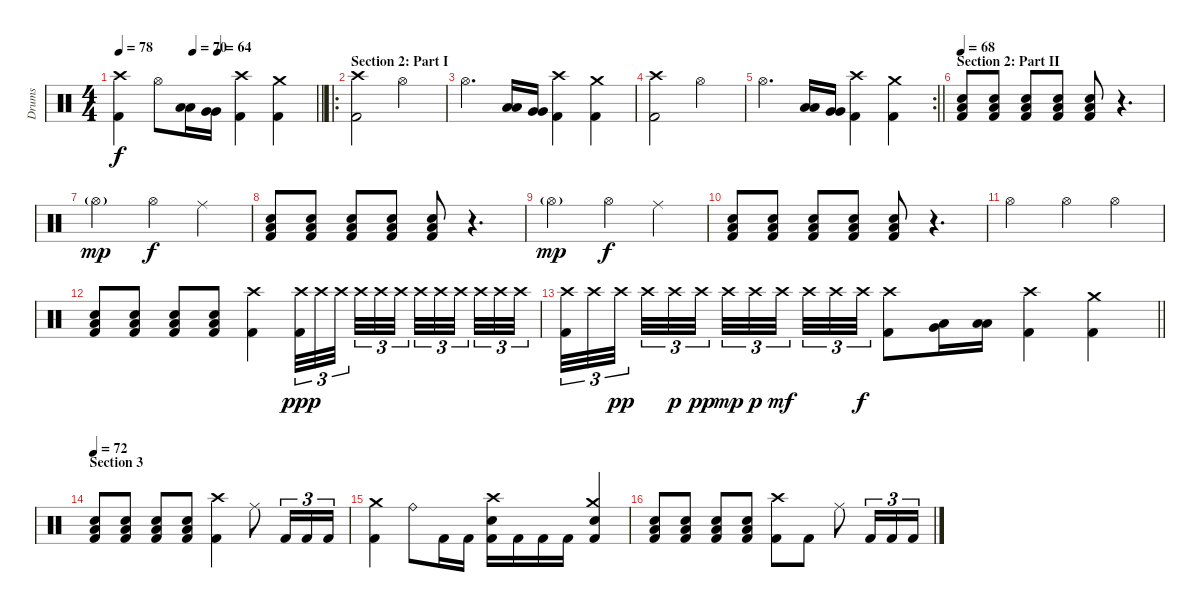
\track ("Drums" "Drums") {instrument percussion}
\staff {score}
\articulation defaults
\ts (4 4)
\tempo 78
\tempo (70 0.375)
\tempo (64 0.5)
\clef neutral
\barLineRight lightlight
\ks c
("Crash high (hit)" "Kick (hit) 2").4{dy f} "Hi-Hat (open)".8 ("Low Tom (hit)" "Low Tom (hit)").16 ("Very Low Tom (hit)" "Very Low Tom (hit)").16 ("Crash high (hit)" "Kick (hit) 2").4 ("Crash medium (hit)" "Kick (hit) 2").4 |
\ro
\section ("" "Section 2: Part I")
("Crash high (hit)" "Kick (hit) 2").2 "Hi-Hat (open)".2 |
"Hi-Hat (open)".4{d} ("Low Tom (hit)" "Low Tom (hit)").16 ("Very Low Tom (hit)" "Very Low Tom (hit)").16 ("Crash high (hit)" "Kick (hit) 2").4 ("Crash medium (hit)" "Kick (hit) 2").4 |
("Crash high (hit)" "Kick (hit) 2").2 "Hi-Hat (open)".2 |
\rc 2
\barLineRight lightlight "Hi-Hat (open)".4{d}
("Low Tom (hit)" "Low Tom (hit)").16 ("Very Low Tom (hit)" "Very Low Tom (hit)").16 ("Crash high (hit)" "Kick (hit) 2").4 ("Crash medium (hit)" "Kick (hit) 2").4 |
\section ("" "Section 2: Part II")
\tempo 68
("Low Floor Tom (hit)" "Electric Snare (hit)" "Kick (hit) 2").8 ("Low Floor Tom (hit)" "Electric Snare (hit)" "Kick (hit) 2").8 ("Low Floor Tom (hit)" "Electric Snare (hit)" "Kick (hit) 2").8 ("Low Floor Tom (hit)" "Electric Snare (hit)" "Kick (hit) 2").8 ("Low Floor Tom (hit)" "Electric Snare (hit)" "Kick (hit) 2").8 r.4{d} |
"Hi-Hat (open)"{g}.2{dy mp} "Hi-Hat (open)".4{dy f} "Ride (middle)".4 |
("Low Floor Tom (hit)" "Electric Snare (hit)" "Kick (hit) 2").8 ("Low Floor Tom (hit)" "Electric Snare (hit)" "Kick (hit) 2").8 ("Low Floor Tom (hit)" "Electric Snare (hit)" "Kick (hit) 2").8 ("Low Floor Tom (hit)" "Electric Snare (hit)" "Kick (hit) 2").8 ("Low Floor Tom (hit)" "Electric Snare (hit)" "Kick (hit) 2").8 r.4{d} |
"Hi-Hat (open)"{g}.2{dy mp} "Hi-Hat (open)".4{dy f} "Ride (middle)".4 |
("Low Floor Tom (hit)" "Electric Snare (hit)" "Kick (hit) 2").8 ("Low Floor Tom (hit)" "Electric Snare (hit)" "Kick (hit) 2").8 ("Low Floor Tom (hit)" "Electric Snare (hit)" "Kick (hit) 2").8 ("Low Floor Tom (hit)" "Electric Snare (hit)" "Kick (hit) 2").8 ("Low Floor Tom (hit)" "Electric Snare (hit)" "Kick (hit) 2").8 r.4{d} |
"Hi-Hat (open)".2 "Hi-Hat (open)".4 "Hi-Hat (open)".4 |
("Low Floor Tom (hit)" "Electric Snare (hit)" "Kick (hit) 2").8 ("Low Floor Tom (hit)" "Electric Snare (hit)" "Kick (hit) 2").8 ("Low Floor Tom (hit)" "Electric Snare (hit)" "Kick (hit) 2").8 ("Low Floor Tom (hit)" "Electric Snare (hit)" "Kick (hit) 2").8 ("Crash high (hit)" "Kick (hit) 2").4 ("Crash high (hit)" "Kick (hit) 2").32{tu (3 2) dy ppp} "Crash high (hit)".32{tu (3 2)} "Crash high (hit)".32{tu (3 2) beam splitsecondary} "Crash high (hit)".32{tu (3 2)} "Crash high (hit)".32{tu (3 2)} "Crash high (hit)".32{tu (3 2) beam splitsecondary} "Crash high (hit)".32{tu (3 2)} "Crash high (hit)".32{tu (3 2)} "Crash high (hit)".32{tu (3 2) beam splitsecondary} "Crash high (hit)".32{tu (3 2)} "Crash high (hit)".32{tu (3 2)} "Crash high (hit)".32{tu (3 2)} |
\barLineRight lightlight
("Crash high (hit)" "Kick (hit) 2").32{tu (3 2)} "Crash high (hit)".32{tu (3 2)} "Crash high (hit)".32{tu (3 2) dy pp beam splitsecondary} "Crash high (hit)".32{tu (3 2)} "Crash high (hit)".32{tu (3 2) dy p} "Crash high (hit)".32{tu (3 2) dy pp beam splitsecondary} "Crash high (hit)".32{tu (3 2) dy mp} "Crash high (hit)".32{tu (3 2) dy p} "Crash high (hit)".32{tu (3 2) dy mf beam splitsecondary} "Crash high (hit)".32{tu (3 2)} "Crash high (hit)".32{tu (3 2)} "Crash high (hit)".32{tu (3 2) dy f} ("Crash high (hit)" "Kick (hit) 2").8 ("Very Low Tom (hit)" "Low Floor Tom (hit)").16 ("Low Floor Tom (hit)" "Low Floor Tom (hit)").16 ("Crash high (hit)" "Kick (hit) 2").4 ("Crash medium (hit)" "Kick (hit) 2").4 |
\section ("" "Section 3")
\tempo 72
("Low Floor Tom (hit)" "Electric Snare (hit)" "Kick (hit) 2").8 ("Low Floor Tom (hit)" "Electric Snare (hit)" "Kick (hit) 2").8 ("Low Floor Tom (hit)" "Electric Snare (hit)" "Kick (hit) 2").8 ("Low Floor Tom (hit)" "Electric Snare (hit)" "Kick (hit) 2").8 ("Crash high (hit)" "Kick (hit) 2").4 "Ride (middle)".8 "Kick (hit) 2".16{tu (3 2)} "Kick (hit) 2".16{tu (3 2)} "Kick (hit) 2".16{tu (3 2)} |
("Crash medium (hit)" "Kick (hit) 2").4 "Ride (bell)".8 "Kick (hit) 2".16 "Kick (hit) 2".16 ("Crash high (hit)" "Electric Snare (hit)" "Kick (hit) 2").16 "Kick (hit) 2".16 "Kick (hit) 2".16 "Kick (hit) 2".16 ("Crash medium (hit)" "Electric Snare (hit)" "Kick (hit) 2").4 |
("Low Floor Tom (hit)" "Electric Snare (hit)" "Kick (hit) 2").8 ("Low Floor Tom (hit)" "Electric Snare (hit)" "Kick (hit) 2").8 ("Low Floor Tom (hit)" "Electric Snare (hit)" "Kick (hit) 2").8 ("Low Floor Tom (hit)" "Electric Snare (hit)" "Kick (hit) 2").8 ("Crash high (hit)" "Kick (hit) 2").8 "Kick (hit) 2".8 "Ride (middle)".8 "Kick (hit) 2".16{tu (3 2)} "Kick (hit) 2".16{tu (3 2)} "Kick (hit) 2".16{tu (3 2)}
